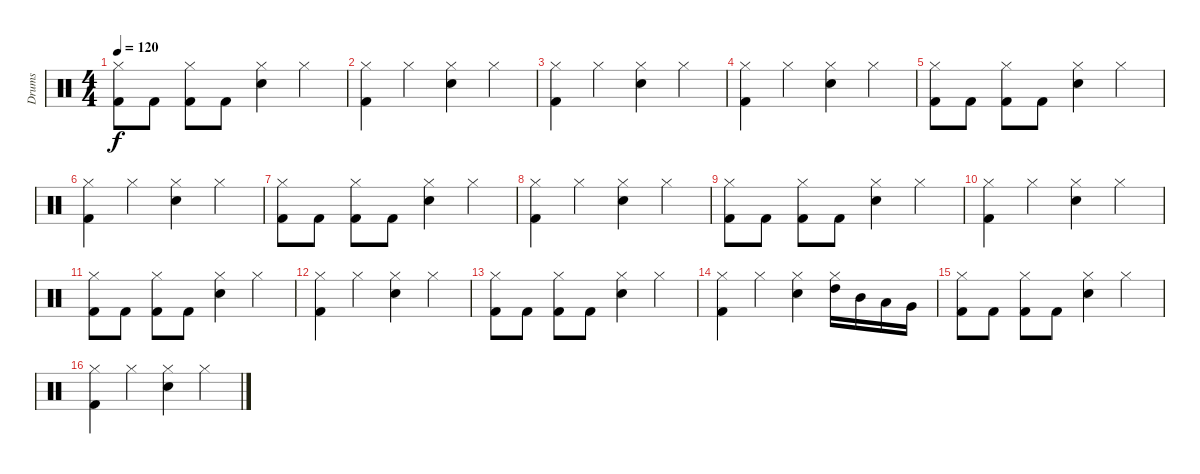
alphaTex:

\track ("Drums" "Drums") {instrument percussion}
\staff {score}
\articulation defaults
\ts (4 4)
\tempo 120
\clef neutral
\ks c
("Hi-Hat (closed)" "Kick (hit) 2").8{dy f} "Kick (hit) 2".8 ("Hi-Hat (closed)" "Kick (hit) 2").8 "Kick (hit) 2".8 ("Hi-Hat (closed)" "Electric Snare (hit)").4 "Hi-Hat (closed)".4 |
("Hi-Hat (closed)" "Kick (hit) 2").4 "Hi-Hat (closed)".4 ("Hi-Hat (closed)" "Electric Snare (hit)").4 "Hi-Hat (closed)".4 |
("Hi-Hat (closed)" "Kick (hit) 2").4 "Hi-Hat (closed)".4 ("Hi-Hat (closed)" "Electric Snare (hit)").4 "Hi-Hat (closed)".4 |
("Hi-Hat (closed)" "Kick (hit) 2").4 "Hi-Hat (closed)".4 ("Hi-Hat (closed)" "Electric Snare (hit)").4 "Hi-Hat (closed)".4 |
("Hi-Hat (closed)" "Kick (hit) 2").8 "Kick (hit) 2".8 ("Hi-Hat (closed)" "Kick (hit) 2").8 "Kick (hit) 2".8 ("Hi-Hat (closed)" "Electric Snare (hit)").4 "Hi-Hat (closed)".4 |
("Hi-Hat (closed)" "Kick (hit) 2").4 "Hi-Hat (closed)".4 ("Hi-Hat (closed)" "Electric Snare (hit)").4 "Hi-Hat (closed)".4 |
("Hi-Hat (closed)" "Kick (hit) 2").8 "Kick (hit) 2".8 ("Hi-Hat (closed)" "Kick (hit) 2").8 "Kick (hit) 2".8 ("Hi-Hat (closed)" "Electric Snare (hit)").4 "Hi-Hat (closed)".4 |
("Hi-Hat (closed)" "Kick (hit) 2").4 "Hi-Hat (closed)".4 ("Hi-Hat (closed)" "Electric Snare (hit)").4 "Hi-Hat (closed)".4 |
("Hi-Hat (closed)" "Kick (hit) 2").8 "Kick (hit) 2".8 ("Hi-Hat (closed)" "Kick (hit) 2").8 "Kick (hit) 2".8 ("Hi-Hat (closed)" "Electric Snare (hit)").4 "Hi-Hat (closed)".4 |
("Hi-Hat (closed)" "Kick (hit) 2").4 "Hi-Hat (closed)".4 ("Hi-Hat (closed)" "Electric Snare (hit)").4 "Hi-Hat (closed)".4 |
("Hi-Hat (closed)" "Kick (hit) 2").8 "Kick (hit) 2".8 ("Hi-Hat (closed)" "Kick (hit) 2").8 "Kick (hit) 2".8 ("Hi-Hat (closed)" "Electric Snare (hit)").4 "Hi-Hat (closed)".4 |
("Hi-Hat (closed)" "Kick (hit) 2").4 "Hi-Hat (closed)".4 ("Hi-Hat (closed)" "Electric Snare (hit)").4 "Hi-Hat (closed)".4 |
("Hi-Hat (closed)" "Kick (hit) 2").8 "Kick (hit) 2".8 ("Hi-Hat (closed)" "Kick (hit) 2").8 "Kick (hit) 2".8 ("Hi-Hat (closed)" "Electric Snare (hit)").4 "Hi-Hat (closed)".4 |
("Hi-Hat (closed)" "Kick (hit) 2").4 "Hi-Hat (closed)".4 ("Hi-Hat (closed)" "Electric Snare (hit)").4 ("Hi-Hat (closed)" "High Tom (hit)").16 "Mid Tom (hit)".16 "Low Tom (hit)".16 "Very Low Tom (hit)".16 |
("Hi-Hat (closed)" "Kick (hit) 2").8 "Kick (hit) 2".8 ("Hi-Hat (closed)" "Kick (hit) 2").8 "Kick (hit) 2".8 ("Hi-Hat (closed)" "Electric Snare (hit)").4 "Hi-Hat (closed)".4 |
("Hi-Hat (closed)" "Kick (hit) 2").4 "Hi-Hat (closed)".4 ("Hi-Hat (closed)" "Electric Snare (hit)").4 "Hi-Hat (closed)".4
